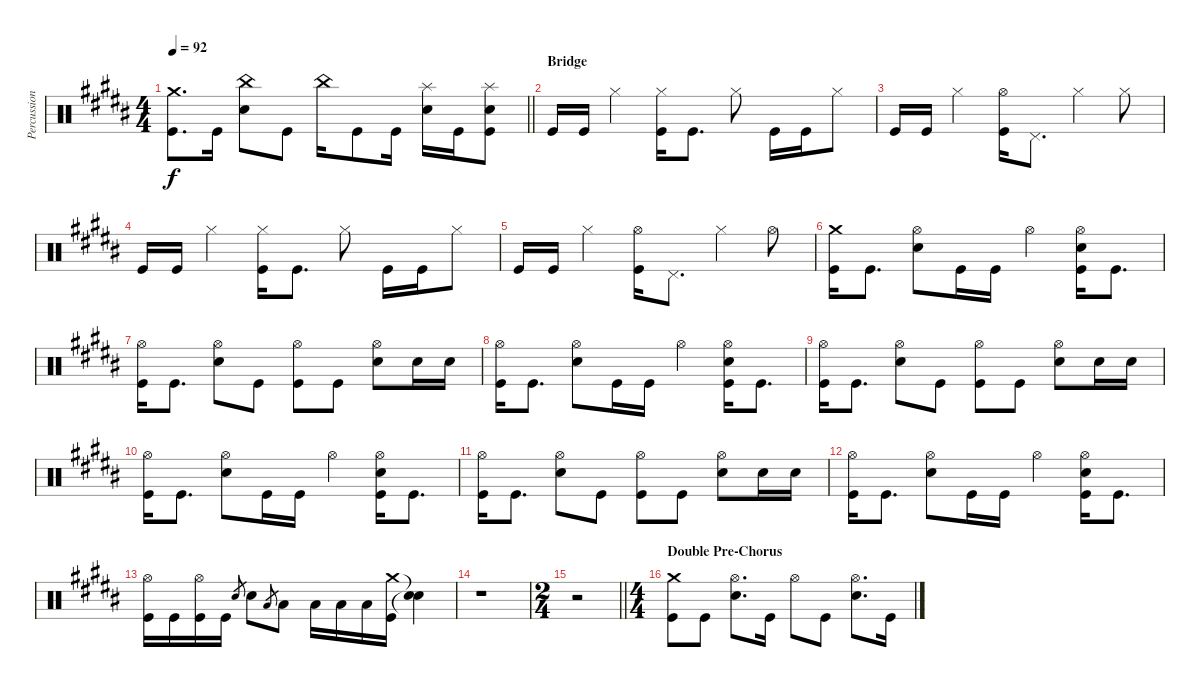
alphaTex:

\track ("Percussion" "Percussion") {instrument percussion}
\staff {score}
\articulation defaults
\ts (4 4)
\tempo 92
\clef neutral
\barLineRight lightlight
\ks b
("Crash medium (hit)" "Kick (hit)").8{d dy f} "Kick (hit)".16 ("China (hit)" "Electric Snare (hit)").8 "Kick (hit)".8 "China (hit)".16 "Kick (hit)".8 "Kick (hit)".16 ("Splash (hit)" "Electric Snare (hit)").16 "Kick (hit)".16 ("Splash (hit)" "Electric Snare (hit)" "Kick (hit)").8 |
\section ("" "Bridge")
"Kick (hit)".16 "Kick (hit)".16 "Hi-Hat (closed)".4 ("Hi-Hat (closed)" "Kick (hit)").16 "Kick (hit)".8{d} "Hi-Hat (closed)".8 "Kick (hit)".16 "Kick (hit)".16 "Hi-Hat (closed)".8 |
"Kick (hit)".16 "Kick (hit)".16 "Hi-Hat (closed)".4 ("Hi-Hat (open)" "Kick (hit)").16 "Pedal Hi-Hat (hit)".8{d} "Hi-Hat (closed)".4 "Hi-Hat (closed)".8 |
"Kick (hit)".16 "Kick (hit)".16 "Hi-Hat (closed)".4 ("Hi-Hat (closed)" "Kick (hit)").16 "Kick (hit)".8{d} "Hi-Hat (closed)".8 "Kick (hit)".16 "Kick (hit)".16 "Hi-Hat (closed)".8 |
"Kick (hit)".16 "Kick (hit)".16 "Hi-Hat (closed)".4 ("Hi-Hat (open)" "Kick (hit)").16 "Pedal Hi-Hat (hit)".8{d} "Hi-Hat (closed)".4 "Hi-Hat (open)".8 |
("Crash medium (hit)" "Kick (hit)").16 "Kick (hit)".8{d} ("Hi-Hat (open)" "Electric Snare (hit)").8 "Kick (hit)".16 "Kick (hit)".16 "Hi-Hat (open)".4 ("Hi-Hat (open)" "Electric Snare (hit)" "Kick (hit)").16 "Kick (hit)".8{d} |
("Hi-Hat (open)" "Kick (hit)").16 "Kick (hit)".8{d} ("Hi-Hat (open)" "Electric Snare (hit)").8 "Kick (hit)".8 ("Hi-Hat (open)" "Kick (hit)").8 "Kick (hit)".8 ("Hi-Hat (open)" "Electric Snare (hit)").8 "Electric Snare (hit)".16 "Electric Snare (hit)".16 |
("Hi-Hat (open)" "Kick (hit)").16 "Kick (hit)".8{d} ("Hi-Hat (open)" "Electric Snare (hit)").8 "Kick (hit)".16 "Kick (hit)".16 "Hi-Hat (open)".4 ("Hi-Hat (open)" "Electric Snare (hit)" "Kick (hit)").16 "Kick (hit)".8{d} |
("Hi-Hat (open)" "Kick (hit)").16 "Kick (hit)".8{d} ("Hi-Hat (open)" "Electric Snare (hit)").8 "Kick (hit)".8 ("Hi-Hat (open)" "Kick (hit)").8 "Kick (hit)".8 ("Hi-Hat (open)" "Electric Snare (hit)").8 "Electric Snare (hit)".16 "Electric Snare (hit)".16 |
("Hi-Hat (open)" "Kick (hit)").16 "Kick (hit)".8{d} ("Hi-Hat (open)" "Electric Snare (hit)").8 "Kick (hit)".16 "Kick (hit)".16 "Hi-Hat (open)".4 ("Hi-Hat (open)" "Electric Snare (hit)" "Kick (hit)").16 "Kick (hit)".8{d} |
("Hi-Hat (open)" "Kick (hit)").16 "Kick (hit)".8{d} ("Hi-Hat (open)" "Electric Snare (hit)").8 "Kick (hit)".8 ("Hi-Hat (open)" "Kick (hit)").8 "Kick (hit)".8 ("Hi-Hat (open)" "Electric Snare (hit)").8 "Electric Snare (hit)".16 "Electric Snare (hit)".16 |
("Hi-Hat (open)" "Kick (hit)").16 "Kick (hit)".8{d} ("Hi-Hat (open)" "Electric Snare (hit)").8 "Kick (hit)".16 "Kick (hit)".16 "Hi-Hat (open)".4 ("Hi-Hat (open)" "Electric Snare (hit)" "Kick (hit)").16 "Kick (hit)".8{d} |
("Hi-Hat (open)" "Kick (hit)").16 "Kick (hit)".16 ("Hi-Hat (open)" "Kick (hit)").16 "Kick (hit)".16 "Electric Snare (hit)".8{gr} "Electric Snare (hit)".8 "Low Floor Tom (hit)".8{gr} "Low Floor Tom (hit)".8 "Low Floor Tom (hit)".16 "Low Floor Tom (hit)".16 "Low Floor Tom (hit)".16 ("Crash medium (hit)" "Kick (hit)").16 ("Snare (hit)"{t} "Snare (hit)"{t}).4 |
r.1 |
\ts (2 4)
\barLineRight lightlight
r.2 |
\ts (4 4)
\section ("" "Double Pre-Chorus")
("Crash medium (hit)" "Kick (hit)").8 "Kick (hit)".8 ("Hi-Hat (open)" "Electric Snare (hit)").8{d} "Kick (hit)".16 "Hi-Hat (open)".8 "Kick (hit)".8 ("Hi-Hat (open)" "Electric Snare (hit)").8{d} "Kick (hit)".16
